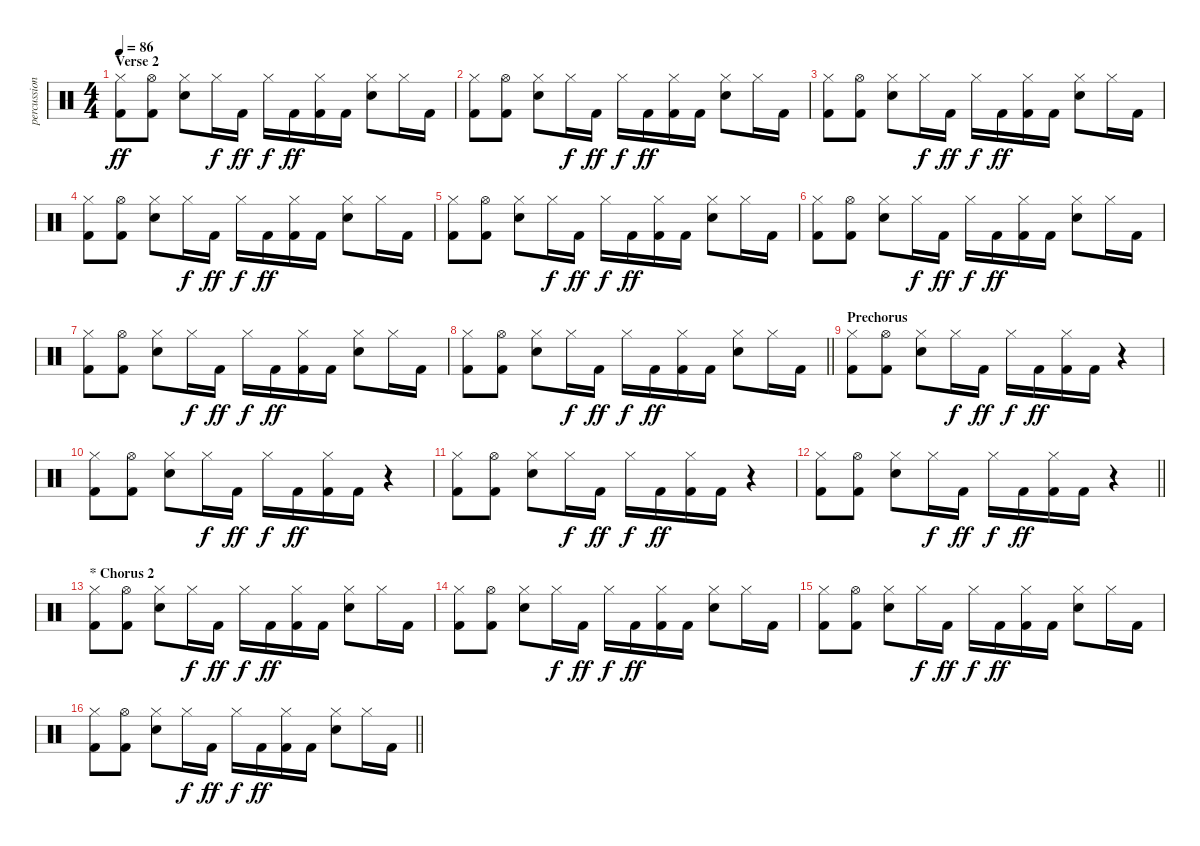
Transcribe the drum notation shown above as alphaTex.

\track ("percussion" "percussion") {instrument percussion}
\staff {score}
\articulation defaults
\ts (4 4)
\section ("" "Verse 2")
\tempo 86
\clef neutral
\ks c
("Hi-Hat (closed)" "Kick (hit) 2").8{dy ff} ("Hi-Hat (open)" "Kick (hit) 2").8 ("Electric Snare (hit)" "Hi-Hat (closed)").8 "Hi-Hat (closed)".16{dy f} "Kick (hit) 2".16{dy ff} "Hi-Hat (closed)".16{dy f} "Kick (hit) 2".16{dy ff} ("Hi-Hat (closed)" "Kick (hit) 2").16 "Kick (hit) 2".16 ("Electric Snare (hit)" "Hi-Hat (closed)").8 "Hi-Hat (closed)".16 "Kick (hit) 2".16 |
("Hi-Hat (closed)" "Kick (hit) 2").8 ("Hi-Hat (open)" "Kick (hit) 2").8 ("Electric Snare (hit)" "Hi-Hat (closed)").8 "Hi-Hat (closed)".16{dy f} "Kick (hit) 2".16{dy ff} "Hi-Hat (closed)".16{dy f} "Kick (hit) 2".16{dy ff} ("Hi-Hat (closed)" "Kick (hit) 2").16 "Kick (hit) 2".16 ("Electric Snare (hit)" "Hi-Hat (closed)").8 "Hi-Hat (closed)".16 "Kick (hit) 2".16 |
("Hi-Hat (closed)" "Kick (hit) 2").8 ("Hi-Hat (open)" "Kick (hit) 2").8 ("Electric Snare (hit)" "Hi-Hat (closed)").8 "Hi-Hat (closed)".16{dy f} "Kick (hit) 2".16{dy ff} "Hi-Hat (closed)".16{dy f} "Kick (hit) 2".16{dy ff} ("Hi-Hat (closed)" "Kick (hit) 2").16 "Kick (hit) 2".16 ("Electric Snare (hit)" "Hi-Hat (closed)").8 "Hi-Hat (closed)".16 "Kick (hit) 2".16 |
("Hi-Hat (closed)" "Kick (hit) 2").8 ("Hi-Hat (open)" "Kick (hit) 2").8 ("Electric Snare (hit)" "Hi-Hat (closed)").8 "Hi-Hat (closed)".16{dy f} "Kick (hit) 2".16{dy ff} "Hi-Hat (closed)".16{dy f} "Kick (hit) 2".16{dy ff} ("Hi-Hat (closed)" "Kick (hit) 2").16 "Kick (hit) 2".16 ("Electric Snare (hit)" "Hi-Hat (closed)").8 "Hi-Hat (closed)".16 "Kick (hit) 2".16 |
("Hi-Hat (closed)" "Kick (hit) 2").8 ("Hi-Hat (open)" "Kick (hit) 2").8 ("Electric Snare (hit)" "Hi-Hat (closed)").8 "Hi-Hat (closed)".16{dy f} "Kick (hit) 2".16{dy ff} "Hi-Hat (closed)".16{dy f} "Kick (hit) 2".16{dy ff} ("Hi-Hat (closed)" "Kick (hit) 2").16 "Kick (hit) 2".16 ("Electric Snare (hit)" "Hi-Hat (closed)").8 "Hi-Hat (closed)".16 "Kick (hit) 2".16 |
("Hi-Hat (closed)" "Kick (hit) 2").8 ("Hi-Hat (open)" "Kick (hit) 2").8 ("Electric Snare (hit)" "Hi-Hat (closed)").8 "Hi-Hat (closed)".16{dy f} "Kick (hit) 2".16{dy ff} "Hi-Hat (closed)".16{dy f} "Kick (hit) 2".16{dy ff} ("Hi-Hat (closed)" "Kick (hit) 2").16 "Kick (hit) 2".16 ("Electric Snare (hit)" "Hi-Hat (closed)").8 "Hi-Hat (closed)".16 "Kick (hit) 2".16 |
("Hi-Hat (closed)" "Kick (hit) 2").8 ("Hi-Hat (open)" "Kick (hit) 2").8 ("Electric Snare (hit)" "Hi-Hat (closed)").8 "Hi-Hat (closed)".16{dy f} "Kick (hit) 2".16{dy ff} "Hi-Hat (closed)".16{dy f} "Kick (hit) 2".16{dy ff} ("Hi-Hat (closed)" "Kick (hit) 2").16 "Kick (hit) 2".16 ("Electric Snare (hit)" "Hi-Hat (closed)").8 "Hi-Hat (closed)".16 "Kick (hit) 2".16 |
\barLineRight lightlight
("Hi-Hat (closed)" "Kick (hit) 2").8 ("Hi-Hat (open)" "Kick (hit) 2").8 ("Electric Snare (hit)" "Hi-Hat (closed)").8 "Hi-Hat (closed)".16{dy f} "Kick (hit) 2".16{dy ff} "Hi-Hat (closed)".16{dy f} "Kick (hit) 2".16{dy ff} ("Hi-Hat (closed)" "Kick (hit) 2").16 "Kick (hit) 2".16 ("Electric Snare (hit)" "Hi-Hat (closed)").8 "Hi-Hat (closed)".16 "Kick (hit) 2".16 |
\section ("" "Prechorus")
("Hi-Hat (closed)" "Kick (hit) 2").8 ("Hi-Hat (open)" "Kick (hit) 2").8 ("Electric Snare (hit)" "Hi-Hat (closed)").8 "Hi-Hat (closed)".16{dy f} "Kick (hit) 2".16{dy ff} "Hi-Hat (closed)".16{dy f} "Kick (hit) 2".16{dy ff} ("Hi-Hat (closed)" "Kick (hit) 2").16 "Kick (hit) 2".16 r.4 |
("Hi-Hat (closed)" "Kick (hit) 2").8 ("Hi-Hat (open)" "Kick (hit) 2").8 ("Electric Snare (hit)" "Hi-Hat (closed)").8 "Hi-Hat (closed)".16{dy f} "Kick (hit) 2".16{dy ff} "Hi-Hat (closed)".16{dy f} "Kick (hit) 2".16{dy ff} ("Hi-Hat (closed)" "Kick (hit) 2").16 "Kick (hit) 2".16 r.4 |
("Hi-Hat (closed)" "Kick (hit) 2").8 ("Hi-Hat (open)" "Kick (hit) 2").8 ("Electric Snare (hit)" "Hi-Hat (closed)").8 "Hi-Hat (closed)".16{dy f} "Kick (hit) 2".16{dy ff} "Hi-Hat (closed)".16{dy f} "Kick (hit) 2".16{dy ff} ("Hi-Hat (closed)" "Kick (hit) 2").16 "Kick (hit) 2".16 r.4 |
\barLineRight lightlight
("Hi-Hat (closed)" "Kick (hit) 2").8 ("Hi-Hat (open)" "Kick (hit) 2").8 ("Electric Snare (hit)" "Hi-Hat (closed)").8 "Hi-Hat (closed)".16{dy f} "Kick (hit) 2".16{dy ff} "Hi-Hat (closed)".16{dy f} "Kick (hit) 2".16{dy ff} ("Hi-Hat (closed)" "Kick (hit) 2").16 "Kick (hit) 2".16 r.4 |
\section ("" "* Chorus 2")
("Hi-Hat (closed)" "Kick (hit) 2").8 ("Hi-Hat (open)" "Kick (hit) 2").8 ("Electric Snare (hit)" "Hi-Hat (closed)").8 "Hi-Hat (closed)".16{dy f} "Kick (hit) 2".16{dy ff} "Hi-Hat (closed)".16{dy f} "Kick (hit) 2".16{dy ff} ("Hi-Hat (closed)" "Kick (hit) 2").16 "Kick (hit) 2".16 ("Electric Snare (hit)" "Hi-Hat (closed)").8 "Hi-Hat (closed)".16 "Kick (hit) 2".16 |
("Hi-Hat (closed)" "Kick (hit) 2").8 ("Hi-Hat (open)" "Kick (hit) 2").8 ("Electric Snare (hit)" "Hi-Hat (closed)").8 "Hi-Hat (closed)".16{dy f} "Kick (hit) 2".16{dy ff} "Hi-Hat (closed)".16{dy f} "Kick (hit) 2".16{dy ff} ("Hi-Hat (closed)" "Kick (hit) 2").16 "Kick (hit) 2".16 ("Electric Snare (hit)" "Hi-Hat (closed)").8 "Hi-Hat (closed)".16 "Kick (hit) 2".16 |
("Hi-Hat (closed)" "Kick (hit) 2").8 ("Hi-Hat (open)" "Kick (hit) 2").8 ("Electric Snare (hit)" "Hi-Hat (closed)").8 "Hi-Hat (closed)".16{dy f} "Kick (hit) 2".16{dy ff} "Hi-Hat (closed)".16{dy f} "Kick (hit) 2".16{dy ff} ("Hi-Hat (closed)" "Kick (hit) 2").16 "Kick (hit) 2".16 ("Electric Snare (hit)" "Hi-Hat (closed)").8 "Hi-Hat (closed)".16 "Kick (hit) 2".16 |
\barLineRight lightlight
("Hi-Hat (closed)" "Kick (hit) 2").8 ("Hi-Hat (open)" "Kick (hit) 2").8 ("Electric Snare (hit)" "Hi-Hat (closed)").8 "Hi-Hat (closed)".16{dy f} "Kick (hit) 2".16{dy ff} "Hi-Hat (closed)".16{dy f} "Kick (hit) 2".16{dy ff} ("Hi-Hat (closed)" "Kick (hit) 2").16 "Kick (hit) 2".16 ("Electric Snare (hit)" "Hi-Hat (closed)").8 "Hi-Hat (closed)".16 "Kick (hit) 2".16
